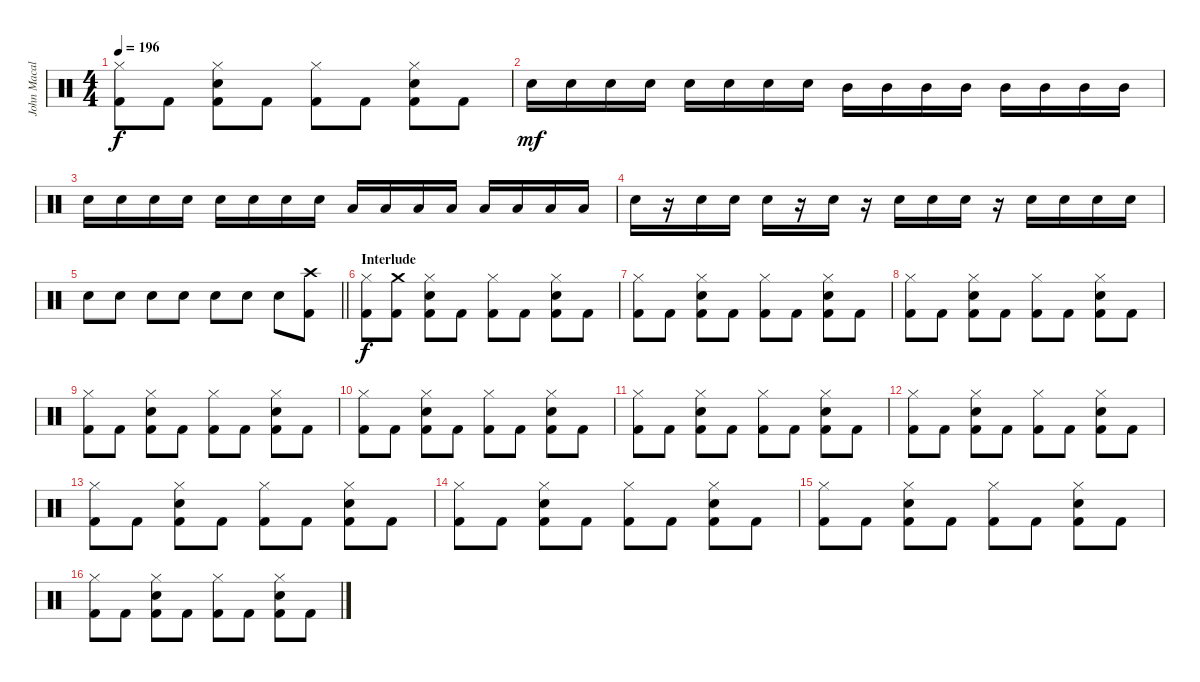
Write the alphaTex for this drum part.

\track ("John Macaluso" "John Macal") {instrument percussion}
\staff {score}
\articulation defaults
\ts (4 4)
\tempo 196
\clef neutral
\ks c
("Hi-Hat (closed)" "Kick (hit) 2").8{dy f} "Kick (hit) 2".8 ("Electric Snare (hit)" "Hi-Hat (closed)" "Kick (hit) 2").8 "Kick (hit) 2".8 ("Hi-Hat (closed)" "Kick (hit) 2").8 "Kick (hit) 2".8 ("Electric Snare (hit)" "Hi-Hat (closed)" "Kick (hit) 2").8 "Kick (hit) 2".8 |
"Electric Snare (hit)".16{dy mf} "Electric Snare (hit)".16 "Electric Snare (hit)".16 "Electric Snare (hit)".16 "Electric Snare (hit)".16 "Electric Snare (hit)".16 "Electric Snare (hit)".16 "Electric Snare (hit)".16 "Mid Tom (hit)".16 "Mid Tom (hit)".16 "Mid Tom (hit)".16 "Mid Tom (hit)".16 "Mid Tom (hit)".16 "Mid Tom (hit)".16 "Mid Tom (hit)".16 "Mid Tom (hit)".16 |
"Electric Snare (hit)".16 "Electric Snare (hit)".16 "Electric Snare (hit)".16 "Electric Snare (hit)".16 "Electric Snare (hit)".16 "Electric Snare (hit)".16 "Electric Snare (hit)".16 "Electric Snare (hit)".16 "Low Tom (hit)".16 "Low Tom (hit)".16 "Low Tom (hit)".16 "Low Tom (hit)".16 "Low Tom (hit)".16 "Low Tom (hit)".16 "Low Tom (hit)".16 "Low Tom (hit)".16 |
"Electric Snare (hit)".16 r.16 "Electric Snare (hit)".16 "Electric Snare (hit)".16 "Electric Snare (hit)".16 r.16 "Electric Snare (hit)".16 r.16 "Electric Snare (hit)".16 "Electric Snare (hit)".16 "Electric Snare (hit)".16 r.16 "Electric Snare (hit)".16 "Electric Snare (hit)".16 "Electric Snare (hit)".16 "Electric Snare (hit)".16 |
\barLineRight lightlight "Electric Snare (hit)".8 "Electric Snare (hit)".8 "Electric Snare (hit)".8 "Electric Snare (hit)".8 "Electric Snare (hit)".8 "Electric Snare (hit)".8 "Electric Snare (hit)".8
("Crash high (hit)" "Kick (hit) 2").8 |
\section ("" "Interlude")
("Hi-Hat (closed)" "Kick (hit) 2").8{dy f} ("Crash medium (hit)" "Kick (hit) 2").8 ("Electric Snare (hit)" "Hi-Hat (closed)" "Kick (hit) 2").8 "Kick (hit) 2".8 ("Hi-Hat (closed)" "Kick (hit) 2").8 "Kick (hit) 2".8 ("Electric Snare (hit)" "Hi-Hat (closed)" "Kick (hit) 2").8 "Kick (hit) 2".8 |
("Hi-Hat (closed)" "Kick (hit) 2").8 "Kick (hit) 2".8 ("Electric Snare (hit)" "Hi-Hat (closed)" "Kick (hit) 2").8 "Kick (hit) 2".8 ("Hi-Hat (closed)" "Kick (hit) 2").8 "Kick (hit) 2".8 ("Electric Snare (hit)" "Hi-Hat (closed)" "Kick (hit) 2").8 "Kick (hit) 2".8 |
("Hi-Hat (closed)" "Kick (hit) 2").8 "Kick (hit) 2".8 ("Electric Snare (hit)" "Hi-Hat (closed)" "Kick (hit) 2").8 "Kick (hit) 2".8 ("Hi-Hat (closed)" "Kick (hit) 2").8 "Kick (hit) 2".8 ("Electric Snare (hit)" "Hi-Hat (closed)" "Kick (hit) 2").8 "Kick (hit) 2".8 |
("Hi-Hat (closed)" "Kick (hit) 2").8 "Kick (hit) 2".8 ("Electric Snare (hit)" "Hi-Hat (closed)" "Kick (hit) 2").8 "Kick (hit) 2".8 ("Hi-Hat (closed)" "Kick (hit) 2").8 "Kick (hit) 2".8 ("Electric Snare (hit)" "Hi-Hat (closed)" "Kick (hit) 2").8 "Kick (hit) 2".8 |
("Hi-Hat (closed)" "Kick (hit) 2").8 "Kick (hit) 2".8 ("Electric Snare (hit)" "Hi-Hat (closed)" "Kick (hit) 2").8 "Kick (hit) 2".8 ("Hi-Hat (closed)" "Kick (hit) 2").8 "Kick (hit) 2".8 ("Electric Snare (hit)" "Hi-Hat (closed)" "Kick (hit) 2").8 "Kick (hit) 2".8 |
("Hi-Hat (closed)" "Kick (hit) 2").8 "Kick (hit) 2".8 ("Electric Snare (hit)" "Hi-Hat (closed)" "Kick (hit) 2").8 "Kick (hit) 2".8 ("Hi-Hat (closed)" "Kick (hit) 2").8 "Kick (hit) 2".8 ("Electric Snare (hit)" "Hi-Hat (closed)" "Kick (hit) 2").8 "Kick (hit) 2".8 |
("Hi-Hat (closed)" "Kick (hit) 2").8 "Kick (hit) 2".8 ("Electric Snare (hit)" "Hi-Hat (closed)" "Kick (hit) 2").8 "Kick (hit) 2".8 ("Hi-Hat (closed)" "Kick (hit) 2").8 "Kick (hit) 2".8 ("Electric Snare (hit)" "Hi-Hat (closed)" "Kick (hit) 2").8 "Kick (hit) 2".8 |
("Hi-Hat (closed)" "Kick (hit) 2").8 "Kick (hit) 2".8 ("Electric Snare (hit)" "Hi-Hat (closed)" "Kick (hit) 2").8 "Kick (hit) 2".8 ("Hi-Hat (closed)" "Kick (hit) 2").8 "Kick (hit) 2".8 ("Electric Snare (hit)" "Hi-Hat (closed)" "Kick (hit) 2").8 "Kick (hit) 2".8 |
("Hi-Hat (closed)" "Kick (hit) 2").8 "Kick (hit) 2".8 ("Electric Snare (hit)" "Hi-Hat (closed)" "Kick (hit) 2").8 "Kick (hit) 2".8 ("Hi-Hat (closed)" "Kick (hit) 2").8 "Kick (hit) 2".8 ("Electric Snare (hit)" "Hi-Hat (closed)" "Kick (hit) 2").8 "Kick (hit) 2".8 |
("Hi-Hat (closed)" "Kick (hit) 2").8 "Kick (hit) 2".8 ("Electric Snare (hit)" "Hi-Hat (closed)" "Kick (hit) 2").8 "Kick (hit) 2".8 ("Hi-Hat (closed)" "Kick (hit) 2").8 "Kick (hit) 2".8 ("Electric Snare (hit)" "Hi-Hat (closed)" "Kick (hit) 2").8 "Kick (hit) 2".8 |
("Hi-Hat (closed)" "Kick (hit) 2").8 "Kick (hit) 2".8 ("Electric Snare (hit)" "Hi-Hat (closed)" "Kick (hit) 2").8 "Kick (hit) 2".8 ("Hi-Hat (closed)" "Kick (hit) 2").8 "Kick (hit) 2".8 ("Electric Snare (hit)" "Hi-Hat (closed)" "Kick (hit) 2").8 "Kick (hit) 2".8
